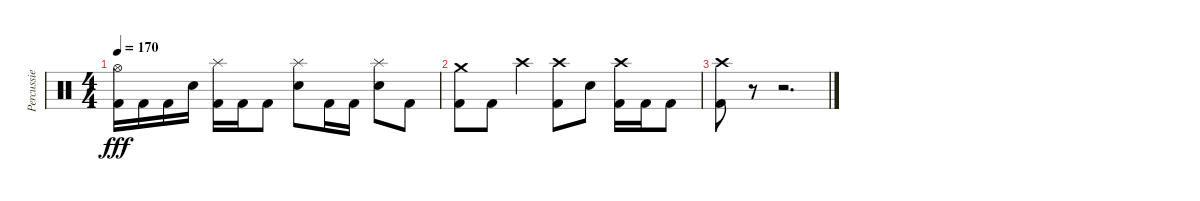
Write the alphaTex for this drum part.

\track ("Percussie" "Percussie") {instrument percussion}
\staff {score}
\articulation defaults
\ts (4 4)
\tempo 170
\clef neutral
\ks c
("Hi-Hat (open)" "Kick (hit) 2").16{dy fff} "Kick (hit) 2".16 "Kick (hit) 2".16 "Electric Snare (hit)".16 ("Splash (hit)" "Kick (hit) 2").16 "Kick (hit) 2".16 "Kick (hit) 2".8 ("Splash (hit)" "Electric Snare (hit)").8 "Kick (hit) 2".16 "Kick (hit) 2".16 ("Splash (hit)" "Electric Snare (hit)").8 "Kick (hit) 2".8 |
("Crash medium (hit)" "Kick (hit) 2").8 "Kick (hit) 2".8 "Crash high (hit)".4 ("Crash high (hit)" "Kick (hit) 2").8 "Electric Snare (hit)".8 ("Crash high (hit)" "Kick (hit) 2").16 "Kick (hit) 2".16 "Kick (hit) 2".8 |
("Crash high (hit)" "Kick (hit) 2").8 r.8 r.2{d}
